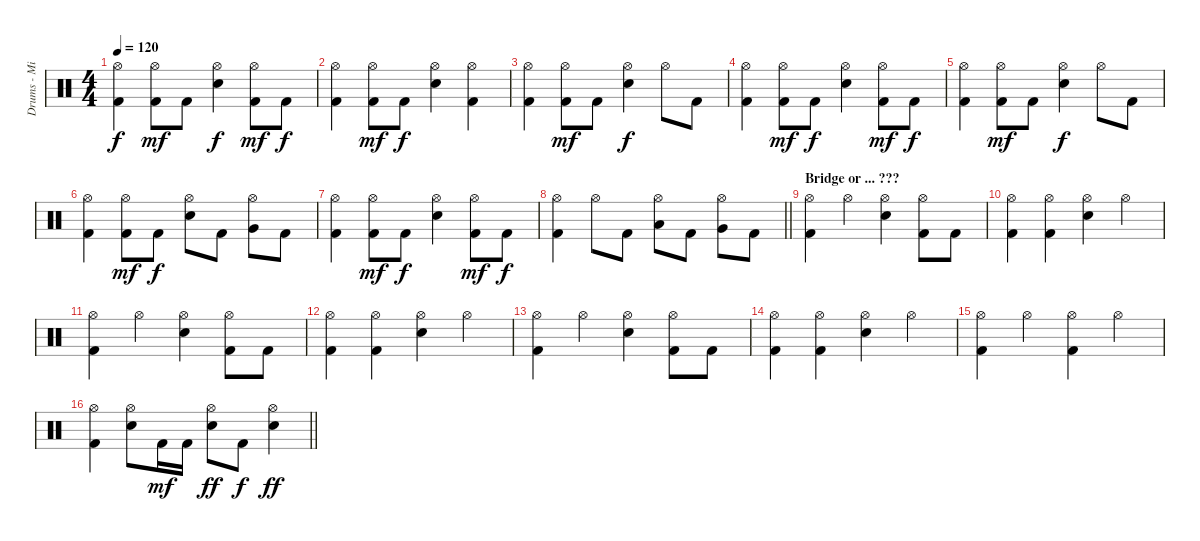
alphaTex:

\track ("Drums - Mikko" "Drums - Mi") {instrument percussion}
\staff {score}
\articulation defaults
\ts (4 4)
\tempo 120
\clef neutral
\ks c
("Hi-Hat (open)" "Kick (hit) 2").4{dy f} ("Hi-Hat (open)" "Kick (hit) 2").8{dy mf} "Kick (hit) 2".8 ("Hi-Hat (open)" "Snare (hit) 2").4{dy f} ("Hi-Hat (open)" "Kick (hit) 2").8{dy mf} "Kick (hit) 2".8{dy f} |
("Hi-Hat (open)" "Kick (hit) 2").4 ("Hi-Hat (open)" "Kick (hit) 2").8{dy mf} "Kick (hit) 2".8{dy f} ("Hi-Hat (open)" "Snare (hit) 2").4 ("Hi-Hat (open)" "Kick (hit) 2").4 |
("Hi-Hat (open)" "Kick (hit) 2").4 ("Hi-Hat (open)" "Kick (hit) 2").8{dy mf} "Kick (hit) 2".8 ("Hi-Hat (open)" "Snare (hit) 2").4{dy f} "Hi-Hat (open)".8 "Kick (hit) 2".8 |
("Hi-Hat (open)" "Kick (hit) 2").4 ("Hi-Hat (open)" "Kick (hit) 2").8{dy mf} "Kick (hit) 2".8{dy f} ("Hi-Hat (open)" "Snare (hit) 2").4 ("Hi-Hat (open)" "Kick (hit) 2").8{dy mf} "Kick (hit) 2".8{dy f} |
("Hi-Hat (open)" "Kick (hit) 2").4 ("Hi-Hat (open)" "Kick (hit) 2").8{dy mf} "Kick (hit) 2".8 ("Hi-Hat (open)" "Snare (hit) 2").4{dy f} "Hi-Hat (open)".8 "Kick (hit) 2".8 |
("Hi-Hat (open)" "Kick (hit) 2").4 ("Hi-Hat (open)" "Kick (hit) 2").8{dy mf} "Kick (hit) 2".8{dy f} ("Hi-Hat (open)" "Snare (hit) 2").8 "Kick (hit) 2".8 ("Hi-Hat (open)" "Very Low Tom (hit)").8 "Kick (hit) 2".8 |
("Hi-Hat (open)" "Kick (hit) 2").4 ("Hi-Hat (open)" "Kick (hit) 2").8{dy mf} "Kick (hit) 2".8{dy f} ("Hi-Hat (open)" "Snare (hit) 2").4 ("Hi-Hat (open)" "Kick (hit) 2").8{dy mf} "Kick (hit) 2".8{dy f} |
\barLineRight lightlight
("Hi-Hat (open)" "Kick (hit) 2").4 "Hi-Hat (open)".8 "Kick (hit) 2".8 ("Hi-Hat (open)" "Low Tom (hit)").8 "Kick (hit) 2".8 ("Hi-Hat (open)" "Very Low Tom (hit)").8 "Kick (hit) 2".8 |
\section ("" "Bridge or ... ???")
("Hi-Hat (open)" "Kick (hit) 2").4 "Hi-Hat (open)".4 ("Hi-Hat (open)" "Snare (hit) 2").4 ("Hi-Hat (open)" "Kick (hit) 2").8 "Kick (hit) 2".8 |
("Hi-Hat (open)" "Kick (hit) 2").4 ("Hi-Hat (open)" "Kick (hit) 2").4 ("Hi-Hat (open)" "Snare (hit) 2").4 "Hi-Hat (open)".4 |
("Hi-Hat (open)" "Kick (hit) 2").4 "Hi-Hat (open)".4 ("Hi-Hat (open)" "Snare (hit) 2").4 ("Hi-Hat (open)" "Kick (hit) 2").8 "Kick (hit) 2".8 |
("Hi-Hat (open)" "Kick (hit) 2").4 ("Hi-Hat (open)" "Kick (hit) 2").4 ("Hi-Hat (open)" "Snare (hit) 2").4 "Hi-Hat (open)".4 |
("Hi-Hat (open)" "Kick (hit) 2").4 "Hi-Hat (open)".4 ("Hi-Hat (open)" "Snare (hit) 2").4 ("Hi-Hat (open)" "Kick (hit) 2").8 "Kick (hit) 2".8 |
("Hi-Hat (open)" "Kick (hit) 2").4 ("Hi-Hat (open)" "Kick (hit) 2").4 ("Hi-Hat (open)" "Snare (hit) 2").4 "Hi-Hat (open)".4 |
("Hi-Hat (open)" "Kick (hit) 2").4 "Hi-Hat (open)".4 ("Hi-Hat (open)" "Kick (hit) 2").4 "Hi-Hat (open)".4 |
\barLineRight lightlight
("Hi-Hat (open)" "Kick (hit) 2").4 ("Hi-Hat (open)" "Snare (hit) 2").8 "Kick (hit) 2".16{dy mf} "Kick (hit) 2".16 ("Hi-Hat (open)" "Snare (hit) 2").8{dy ff} "Kick (hit) 2".8{dy f} ("Hi-Hat (open)" "Snare (hit) 2").4{dy ff}
